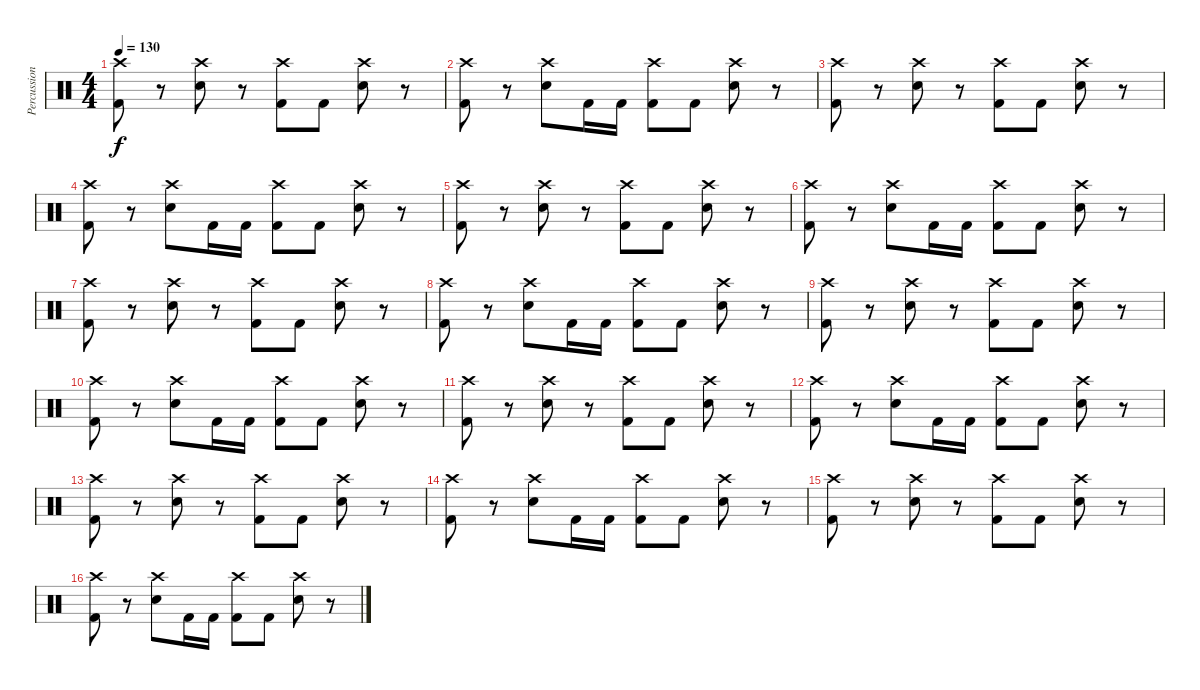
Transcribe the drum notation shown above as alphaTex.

\track ("Percussion" "Percussion") {instrument percussion}
\staff {score}
\articulation defaults
\ts (4 4)
\tempo 130
\clef neutral
\ks c
("Crash high (hit)" "Kick (hit) 2").8{dy f} r.8 ("Crash high (hit)" "Snare (hit) 2").8 r.8 ("Crash high (hit)" "Kick (hit) 2").8 "Kick (hit) 2".8 ("Crash high (hit)" "Snare (hit) 2").8 r.8 |
("Crash high (hit)" "Kick (hit) 2").8 r.8 ("Crash high (hit)" "Snare (hit) 2").8 "Kick (hit) 2".16 "Kick (hit) 2".16 ("Crash high (hit)" "Kick (hit) 2").8 "Kick (hit) 2".8 ("Crash high (hit)" "Snare (hit) 2").8 r.8 |
("Crash high (hit)" "Kick (hit) 2").8 r.8 ("Crash high (hit)" "Snare (hit) 2").8 r.8 ("Crash high (hit)" "Kick (hit) 2").8 "Kick (hit) 2".8 ("Crash high (hit)" "Snare (hit) 2").8 r.8 |
("Crash high (hit)" "Kick (hit) 2").8 r.8 ("Crash high (hit)" "Snare (hit) 2").8 "Kick (hit) 2".16 "Kick (hit) 2".16 ("Crash high (hit)" "Kick (hit) 2").8 "Kick (hit) 2".8 ("Crash high (hit)" "Snare (hit) 2").8 r.8 |
("Crash high (hit)" "Kick (hit) 2").8 r.8 ("Crash high (hit)" "Snare (hit) 2").8 r.8 ("Crash high (hit)" "Kick (hit) 2").8 "Kick (hit) 2".8 ("Crash high (hit)" "Snare (hit) 2").8 r.8 |
("Crash high (hit)" "Kick (hit) 2").8 r.8 ("Crash high (hit)" "Snare (hit) 2").8 "Kick (hit) 2".16 "Kick (hit) 2".16 ("Crash high (hit)" "Kick (hit) 2").8 "Kick (hit) 2".8 ("Crash high (hit)" "Snare (hit) 2").8 r.8 |
("Crash high (hit)" "Kick (hit) 2").8 r.8 ("Crash high (hit)" "Snare (hit) 2").8 r.8 ("Crash high (hit)" "Kick (hit) 2").8 "Kick (hit) 2".8 ("Crash high (hit)" "Snare (hit) 2").8 r.8 |
("Crash high (hit)" "Kick (hit) 2").8 r.8 ("Crash high (hit)" "Snare (hit) 2").8 "Kick (hit) 2".16 "Kick (hit) 2".16 ("Crash high (hit)" "Kick (hit) 2").8 "Kick (hit) 2".8 ("Crash high (hit)" "Snare (hit) 2").8 r.8 |
("Crash high (hit)" "Kick (hit) 2").8 r.8 ("Crash high (hit)" "Snare (hit) 2").8 r.8 ("Crash high (hit)" "Kick (hit) 2").8 "Kick (hit) 2".8 ("Crash high (hit)" "Snare (hit) 2").8 r.8 |
("Crash high (hit)" "Kick (hit) 2").8 r.8 ("Crash high (hit)" "Snare (hit) 2").8 "Kick (hit) 2".16 "Kick (hit) 2".16 ("Crash high (hit)" "Kick (hit) 2").8 "Kick (hit) 2".8 ("Crash high (hit)" "Snare (hit) 2").8 r.8 |
("Crash high (hit)" "Kick (hit) 2").8 r.8 ("Crash high (hit)" "Snare (hit) 2").8 r.8 ("Crash high (hit)" "Kick (hit) 2").8 "Kick (hit) 2".8 ("Crash high (hit)" "Snare (hit) 2").8 r.8 |
("Crash high (hit)" "Kick (hit) 2").8 r.8 ("Crash high (hit)" "Snare (hit) 2").8 "Kick (hit) 2".16 "Kick (hit) 2".16 ("Crash high (hit)" "Kick (hit) 2").8 "Kick (hit) 2".8 ("Crash high (hit)" "Snare (hit) 2").8 r.8 |
("Crash high (hit)" "Kick (hit) 2").8 r.8 ("Crash high (hit)" "Snare (hit) 2").8 r.8 ("Crash high (hit)" "Kick (hit) 2").8 "Kick (hit) 2".8 ("Crash high (hit)" "Snare (hit) 2").8 r.8 |
("Crash high (hit)" "Kick (hit) 2").8 r.8 ("Crash high (hit)" "Snare (hit) 2").8 "Kick (hit) 2".16 "Kick (hit) 2".16 ("Crash high (hit)" "Kick (hit) 2").8 "Kick (hit) 2".8 ("Crash high (hit)" "Snare (hit) 2").8 r.8 |
("Crash high (hit)" "Kick (hit) 2").8 r.8 ("Crash high (hit)" "Snare (hit) 2").8 r.8 ("Crash high (hit)" "Kick (hit) 2").8 "Kick (hit) 2".8 ("Crash high (hit)" "Snare (hit) 2").8 r.8 |
("Crash high (hit)" "Kick (hit) 2").8 r.8 ("Crash high (hit)" "Snare (hit) 2").8 "Kick (hit) 2".16 "Kick (hit) 2".16 ("Crash high (hit)" "Kick (hit) 2").8 "Kick (hit) 2".8 ("Crash high (hit)" "Snare (hit) 2").8 r.8
